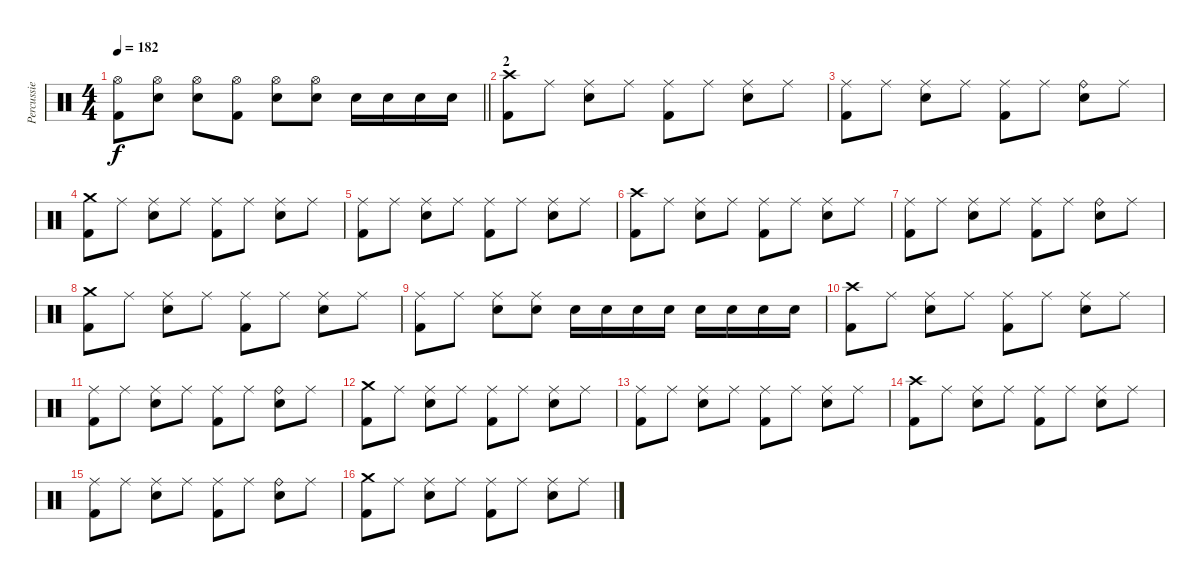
\track ("Percussie" "Percussie") {instrument percussion}
\staff {score}
\articulation defaults
\ts (4 4)
\tempo 182
\clef neutral
\barLineRight lightlight
\ks c
("Hi-Hat (open)" "Kick (hit) 2").8{dy f} ("Hi-Hat (open)" "Snare (hit) 2").8 ("Hi-Hat (open)" "Snare (hit) 2").8 ("Hi-Hat (open)" "Kick (hit) 2").8 ("Hi-Hat (open)" "Snare (hit) 2").8 ("Hi-Hat (open)" "Snare (hit) 2").8 "Snare (hit) 2".16 "Snare (hit) 2".16 "Snare (hit) 2".16 "Snare (hit) 2".16 |
\section ("" "2")
("Crash high (hit)" "Kick (hit) 2").8 "Ride (middle)".8 ("Ride (middle)" "Snare (hit) 2").8 "Ride (middle)".8 ("Ride (middle)" "Kick (hit) 2").8 "Ride (middle)".8 ("Ride (middle)" "Snare (hit) 2").8 "Ride (middle)".8 |
("Ride (middle)" "Kick (hit) 2").8 "Ride (middle)".8 ("Ride (middle)" "Snare (hit) 2").8 "Ride (middle)".8 ("Ride (middle)" "Kick (hit) 2").8 "Ride (middle)".8 ("Ride (bell)" "Snare (hit) 2").8 "Ride (middle)".8 |
("Crash medium (hit)" "Kick (hit) 2").8 "Ride (middle)".8 ("Ride (middle)" "Snare (hit) 2").8 "Ride (middle)".8 ("Ride (middle)" "Kick (hit) 2").8 "Ride (middle)".8 ("Ride (middle)" "Snare (hit) 2").8 "Ride (middle)".8 |
("Ride (middle)" "Kick (hit) 2").8 "Ride (middle)".8 ("Ride (middle)" "Snare (hit) 2").8 "Ride (middle)".8 ("Ride (middle)" "Kick (hit) 2").8 "Ride (middle)".8 ("Ride (middle)" "Snare (hit) 2").8 "Ride (middle)".8 |
("Crash high (hit)" "Kick (hit) 2").8 "Ride (middle)".8 ("Ride (middle)" "Snare (hit) 2").8 "Ride (middle)".8 ("Ride (middle)" "Kick (hit) 2").8 "Ride (middle)".8 ("Ride (middle)" "Snare (hit) 2").8 "Ride (middle)".8 |
("Ride (middle)" "Kick (hit) 2").8 "Ride (middle)".8 ("Ride (middle)" "Snare (hit) 2").8 "Ride (middle)".8 ("Ride (middle)" "Kick (hit) 2").8 "Ride (middle)".8 ("Ride (bell)" "Snare (hit) 2").8 "Ride (middle)".8 |
("Crash medium (hit)" "Kick (hit) 2").8 "Ride (middle)".8 ("Ride (middle)" "Snare (hit) 2").8 "Ride (middle)".8 ("Ride (middle)" "Kick (hit) 2").8 "Ride (middle)".8 ("Ride (middle)" "Snare (hit) 2").8 "Ride (middle)".8 |
("Ride (middle)" "Kick (hit) 2").8 "Ride (middle)".8 ("Ride (middle)" "Snare (hit) 2").8 ("Ride (middle)" "Snare (hit) 2").8 "Snare (hit) 2".16 "Snare (hit) 2".16 "Snare (hit) 2".16 "Snare (hit) 2".16 "Snare (hit) 2".16 "Snare (hit) 2".16 "Snare (hit) 2".16 "Snare (hit) 2".16 |
("Crash high (hit)" "Kick (hit) 2").8 "Ride (middle)".8 ("Ride (middle)" "Snare (hit) 2").8 "Ride (middle)".8 ("Ride (middle)" "Kick (hit) 2").8 "Ride (middle)".8 ("Ride (middle)" "Snare (hit) 2").8 "Ride (middle)".8 |
("Ride (middle)" "Kick (hit) 2").8 "Ride (middle)".8 ("Ride (middle)" "Snare (hit) 2").8 "Ride (middle)".8 ("Ride (middle)" "Kick (hit) 2").8 "Ride (middle)".8 ("Ride (bell)" "Snare (hit) 2").8 "Ride (middle)".8 |
("Crash medium (hit)" "Kick (hit) 2").8 "Ride (middle)".8 ("Ride (middle)" "Snare (hit) 2").8 "Ride (middle)".8 ("Ride (middle)" "Kick (hit) 2").8 "Ride (middle)".8 ("Ride (middle)" "Snare (hit) 2").8 "Ride (middle)".8 |
("Ride (middle)" "Kick (hit) 2").8 "Ride (middle)".8 ("Ride (middle)" "Snare (hit) 2").8 "Ride (middle)".8 ("Ride (middle)" "Kick (hit) 2").8 "Ride (middle)".8 ("Ride (middle)" "Snare (hit) 2").8 "Ride (middle)".8 |
("Crash high (hit)" "Kick (hit) 2").8 "Ride (middle)".8 ("Ride (middle)" "Snare (hit) 2").8 "Ride (middle)".8 ("Ride (middle)" "Kick (hit) 2").8 "Ride (middle)".8 ("Ride (middle)" "Snare (hit) 2").8 "Ride (middle)".8 |
("Ride (middle)" "Kick (hit) 2").8 "Ride (middle)".8 ("Ride (middle)" "Snare (hit) 2").8 "Ride (middle)".8 ("Ride (middle)" "Kick (hit) 2").8 "Ride (middle)".8 ("Ride (bell)" "Snare (hit) 2").8 "Ride (middle)".8 |
("Crash medium (hit)" "Kick (hit) 2").8 "Ride (middle)".8 ("Ride (middle)" "Snare (hit) 2").8 "Ride (middle)".8 ("Ride (middle)" "Kick (hit) 2").8 "Ride (middle)".8 ("Ride (middle)" "Snare (hit) 2").8 "Ride (middle)".8
